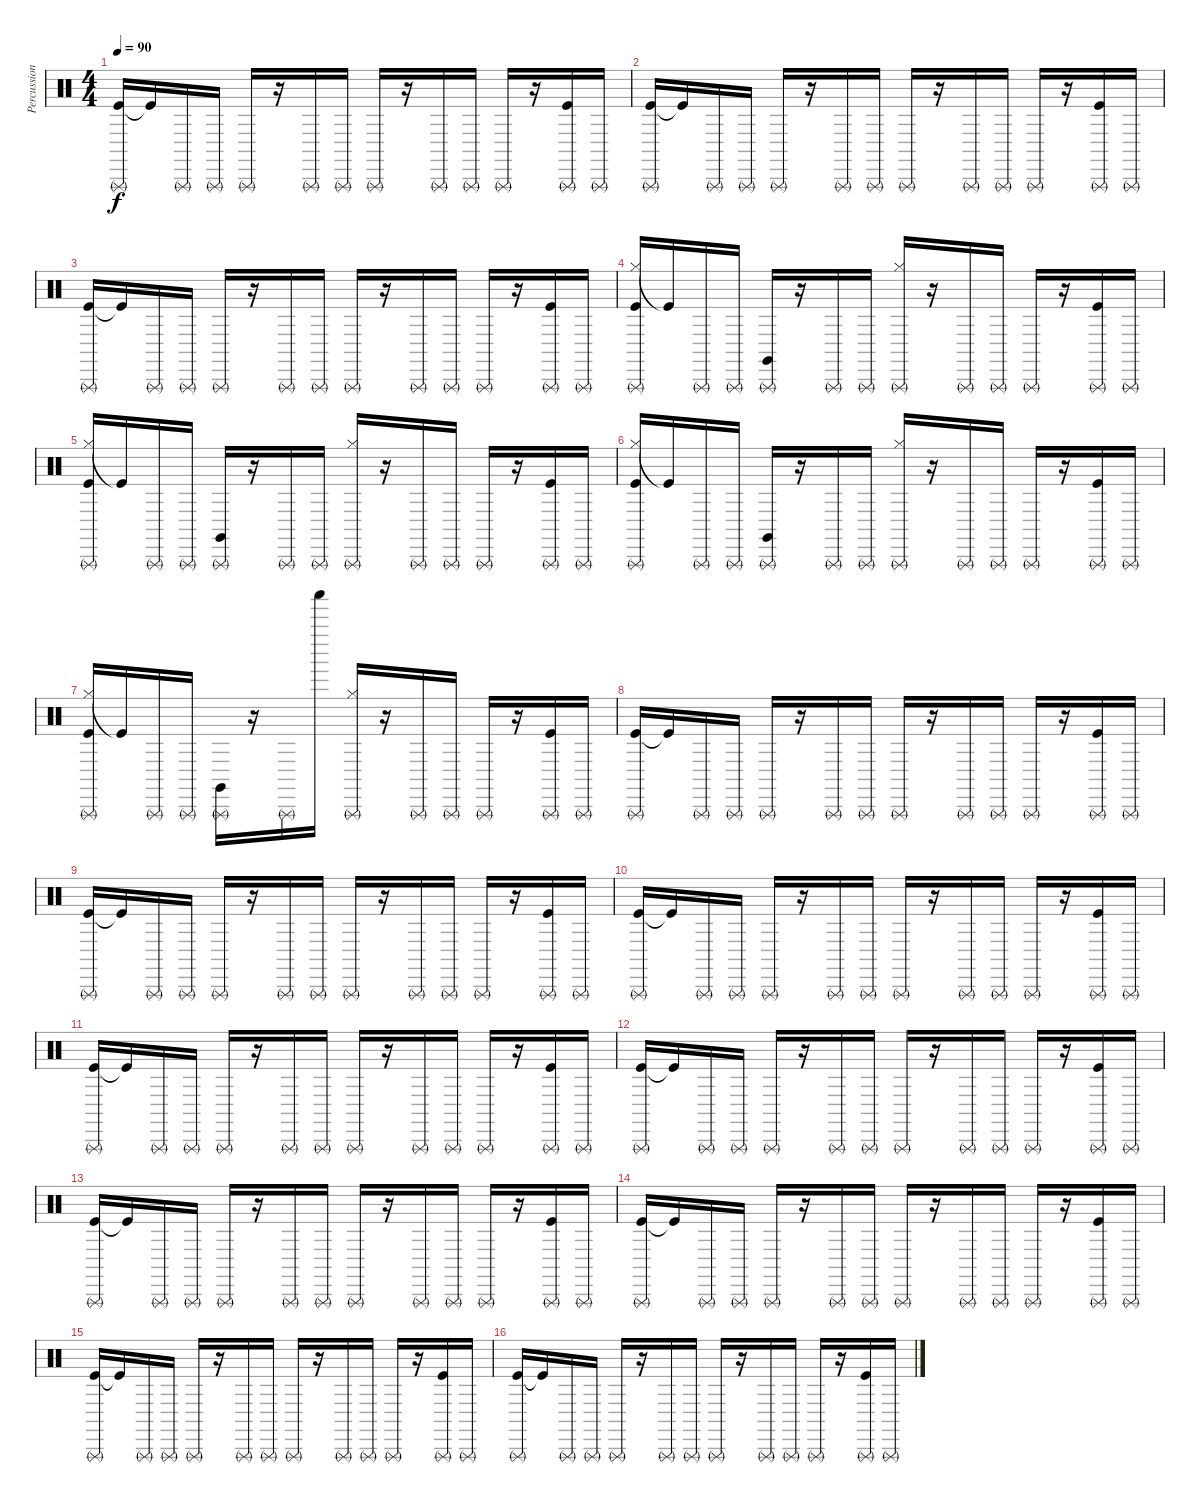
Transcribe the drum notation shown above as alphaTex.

\track ("Percussion" "Percussion") {instrument percussion}
\staff {score}
\articulation defaults
\ts (4 4)
\tempo 90
\clef neutral
\ks c
("Kick (hit)" "Triangle (rnute)").16{dy f} "Kick (hit)"{t}.16 "Triangle (rnute)".16 "Triangle (rnute)".16 "Triangle (rnute)".16 r.16 "Triangle (rnute)".16 "Triangle (rnute)".16 "Triangle (rnute)".16 r.16 "Triangle (rnute)".16 "Triangle (rnute)".16 "Triangle (rnute)".16 r.16 ("Kick (hit)" "Triangle (rnute)").16 "Triangle (rnute)".16 |
("Kick (hit)" "Triangle (rnute)").16 "Kick (hit)"{t}.16 "Triangle (rnute)".16 "Triangle (rnute)".16 "Triangle (rnute)".16 r.16 "Triangle (rnute)".16 "Triangle (rnute)".16 "Triangle (rnute)".16 r.16 "Triangle (rnute)".16 "Triangle (rnute)".16 "Triangle (rnute)".16 r.16 ("Kick (hit)" "Triangle (rnute)").16 "Triangle (rnute)".16 |
("Kick (hit)" "Triangle (rnute)").16 "Kick (hit)"{t}.16 "Triangle (rnute)".16 "Triangle (rnute)".16 "Triangle (rnute)".16 r.16 "Triangle (rnute)".16 "Triangle (rnute)".16 "Triangle (rnute)".16 r.16 "Triangle (rnute)".16 "Triangle (rnute)".16 "Triangle (rnute)".16 r.16 ("Kick (hit)" "Triangle (rnute)").16 "Triangle (rnute)".16 |
("Hi-Hat (closed)" "Kick (hit)" "Triangle (rnute)").16 "Kick (hit)"{t}.16 "Triangle (rnute)".16 "Triangle (rnute)".16 ("Claves (hit)" "Triangle (rnute)").16 r.16 "Triangle (rnute)".16 "Triangle (rnute)".16 ("Hi-Hat (closed)" "Triangle (rnute)").16 r.16 "Triangle (rnute)".16 "Triangle (rnute)".16 "Triangle (rnute)".16 r.16 ("Kick (hit)" "Triangle (rnute)").16 "Triangle (rnute)".16 |
("Hi-Hat (closed)" "Kick (hit)" "Triangle (rnute)").16 "Kick (hit)"{t}.16 "Triangle (rnute)".16 "Triangle (rnute)".16 ("Claves (hit)" "Triangle (rnute)").16 r.16 "Triangle (rnute)".16 "Triangle (rnute)".16 ("Hi-Hat (closed)" "Triangle (rnute)").16 r.16 "Triangle (rnute)".16 "Triangle (rnute)".16 "Triangle (rnute)".16 r.16 ("Kick (hit)" "Triangle (rnute)").16 "Triangle (rnute)".16 |
("Hi-Hat (closed)" "Kick (hit)" "Triangle (rnute)").16 "Kick (hit)"{t}.16 "Triangle (rnute)".16 "Triangle (rnute)".16 ("Claves (hit)" "Triangle (rnute)").16 r.16 "Triangle (rnute)".16 "Triangle (rnute)".16 ("Hi-Hat (closed)" "Triangle (rnute)").16 r.16 "Triangle (rnute)".16 "Triangle (rnute)".16 "Triangle (rnute)".16 r.16 ("Kick (hit)" "Triangle (rnute)").16 "Triangle (rnute)".16 |
("Hi-Hat (closed)" "Kick (hit)" "Triangle (rnute)").16 "Kick (hit)"{t}.16 "Triangle (rnute)".16 "Triangle (rnute)".16 ("Claves (hit)" "Triangle (rnute)").16 r.16 "Triangle (rnute)".16 "Shaker (hit)".16 ("Hi-Hat (closed)" "Triangle (rnute)").16 r.16 "Triangle (rnute)".16 "Triangle (rnute)".16 "Triangle (rnute)".16 r.16 ("Kick (hit)" "Triangle (rnute)").16 "Triangle (rnute)".16 |
("Kick (hit)" "Triangle (rnute)").16 "Kick (hit)"{t}.16 "Triangle (rnute)".16 "Triangle (rnute)".16 "Triangle (rnute)".16 r.16 "Triangle (rnute)".16 "Triangle (rnute)".16 "Triangle (rnute)".16 r.16 "Triangle (rnute)".16 "Triangle (rnute)".16 "Triangle (rnute)".16 r.16 ("Kick (hit)" "Triangle (rnute)").16 "Triangle (rnute)".16 |
("Kick (hit)" "Triangle (rnute)").16 "Kick (hit)"{t}.16 "Triangle (rnute)".16 "Triangle (rnute)".16 "Triangle (rnute)".16 r.16 "Triangle (rnute)".16 "Triangle (rnute)".16 "Triangle (rnute)".16 r.16 "Triangle (rnute)".16 "Triangle (rnute)".16 "Triangle (rnute)".16 r.16 ("Kick (hit)" "Triangle (rnute)").16 "Triangle (rnute)".16 |
("Kick (hit)" "Triangle (rnute)").16 "Kick (hit)"{t}.16 "Triangle (rnute)".16 "Triangle (rnute)".16 "Triangle (rnute)".16 r.16 "Triangle (rnute)".16 "Triangle (rnute)".16 "Triangle (rnute)".16 r.16 "Triangle (rnute)".16 "Triangle (rnute)".16 "Triangle (rnute)".16 r.16 ("Kick (hit)" "Triangle (rnute)").16 "Triangle (rnute)".16 |
("Kick (hit)" "Triangle (rnute)").16 "Kick (hit)"{t}.16 "Triangle (rnute)".16 "Triangle (rnute)".16 "Triangle (rnute)".16 r.16 "Triangle (rnute)".16 "Triangle (rnute)".16 "Triangle (rnute)".16 r.16 "Triangle (rnute)".16 "Triangle (rnute)".16 "Triangle (rnute)".16 r.16 ("Kick (hit)" "Triangle (rnute)").16 "Triangle (rnute)".16 |
("Kick (hit)" "Triangle (rnute)").16 "Kick (hit)"{t}.16 "Triangle (rnute)".16 "Triangle (rnute)".16 "Triangle (rnute)".16 r.16 "Triangle (rnute)".16 "Triangle (rnute)".16 "Triangle (rnute)".16 r.16 "Triangle (rnute)".16 "Triangle (rnute)".16 "Triangle (rnute)".16 r.16 ("Kick (hit)" "Triangle (rnute)").16 "Triangle (rnute)".16 |
("Kick (hit)" "Triangle (rnute)").16 "Kick (hit)"{t}.16 "Triangle (rnute)".16 "Triangle (rnute)".16 "Triangle (rnute)".16 r.16 "Triangle (rnute)".16 "Triangle (rnute)".16 "Triangle (rnute)".16 r.16 "Triangle (rnute)".16 "Triangle (rnute)".16 "Triangle (rnute)".16 r.16 ("Kick (hit)" "Triangle (rnute)").16 "Triangle (rnute)".16 |
("Kick (hit)" "Triangle (rnute)").16 "Kick (hit)"{t}.16 "Triangle (rnute)".16 "Triangle (rnute)".16 "Triangle (rnute)".16 r.16 "Triangle (rnute)".16 "Triangle (rnute)".16 "Triangle (rnute)".16 r.16 "Triangle (rnute)".16 "Triangle (rnute)".16 "Triangle (rnute)".16 r.16 ("Kick (hit)" "Triangle (rnute)").16 "Triangle (rnute)".16 |
("Kick (hit)" "Triangle (rnute)").16 "Kick (hit)"{t}.16 "Triangle (rnute)".16 "Triangle (rnute)".16 "Triangle (rnute)".16 r.16 "Triangle (rnute)".16 "Triangle (rnute)".16 "Triangle (rnute)".16 r.16 "Triangle (rnute)".16 "Triangle (rnute)".16 "Triangle (rnute)".16 r.16 ("Kick (hit)" "Triangle (rnute)").16 "Triangle (rnute)".16 |
("Kick (hit)" "Triangle (rnute)").16 "Kick (hit)"{t}.16 "Triangle (rnute)".16 "Triangle (rnute)".16 "Triangle (rnute)".16 r.16 "Triangle (rnute)".16 "Triangle (rnute)".16 "Triangle (rnute)".16 r.16 "Triangle (rnute)".16 "Triangle (rnute)".16 "Triangle (rnute)".16 r.16 ("Kick (hit)" "Triangle (rnute)").16 "Triangle (rnute)".16
